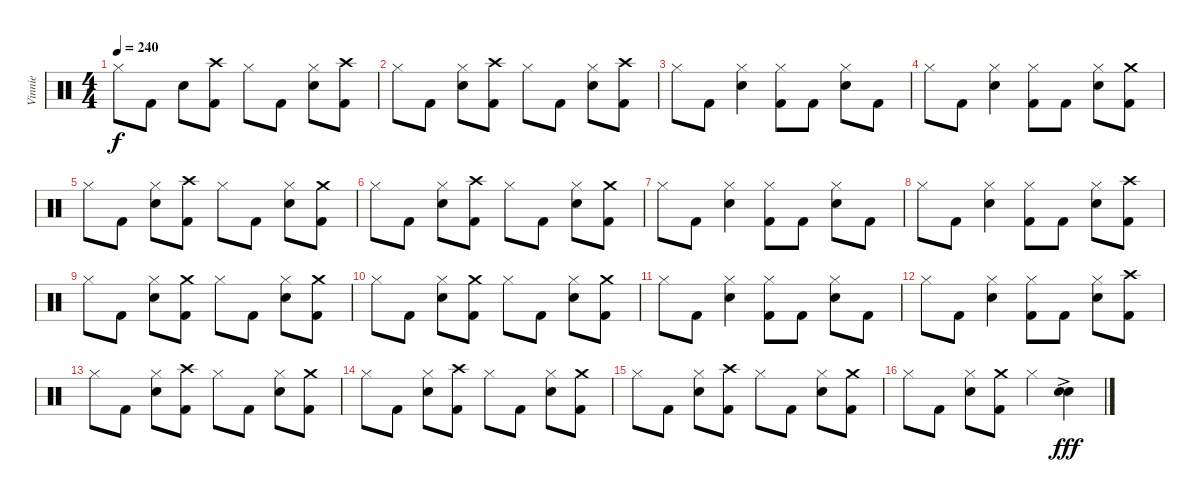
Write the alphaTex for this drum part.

\track ("Vinnie" "Vinnie") {instrument percussion}
\staff {score}
\articulation defaults
\ts (4 4)
\tempo 240
\clef neutral
\ks c "Hi-Hat (closed)".8{dy f} "Kick (hit) 2".8 "Electric Snare (hit)".8
("Crash high (hit)" "Kick (hit) 2").8 "Hi-Hat (closed)".8 "Kick (hit) 2".8 ("Hi-Hat (closed)" "Electric Snare (hit)").8 ("Crash high (hit)" "Kick (hit) 2").8 |
"Hi-Hat (closed)".8 "Kick (hit) 2".8 ("Hi-Hat (closed)" "Electric Snare (hit)").8 ("Crash high (hit)" "Kick (hit) 2").8 "Hi-Hat (closed)".8 "Kick (hit) 2".8 ("Hi-Hat (closed)" "Electric Snare (hit)").8 ("Crash high (hit)" "Kick (hit) 2").8 |
"Hi-Hat (closed)".8 "Kick (hit) 2".8 ("Hi-Hat (closed)" "Electric Snare (hit)").4 ("Hi-Hat (closed)" "Kick (hit) 2").8 "Kick (hit) 2".8 ("Hi-Hat (closed)" "Electric Snare (hit)").8 "Kick (hit) 2".8 |
"Hi-Hat (closed)".8 "Kick (hit) 2".8 ("Hi-Hat (closed)" "Electric Snare (hit)").4 ("Hi-Hat (closed)" "Kick (hit) 2").8 "Kick (hit) 2".8 ("Hi-Hat (closed)" "Electric Snare (hit)").8 ("Crash medium (hit)" "Kick (hit) 2").8 |
"Hi-Hat (closed)".8 "Kick (hit) 2".8 ("Hi-Hat (closed)" "Electric Snare (hit)").8 ("Crash high (hit)" "Kick (hit) 2").8 "Hi-Hat (closed)".8 "Kick (hit) 2".8 ("Hi-Hat (closed)" "Electric Snare (hit)").8 ("Crash medium (hit)" "Kick (hit) 2").8 |
"Hi-Hat (closed)".8 "Kick (hit) 2".8 ("Hi-Hat (closed)" "Electric Snare (hit)").8 ("Crash high (hit)" "Kick (hit) 2").8 "Hi-Hat (closed)".8 "Kick (hit) 2".8 ("Hi-Hat (closed)" "Electric Snare (hit)").8 ("Crash medium (hit)" "Kick (hit) 2").8 |
"Hi-Hat (closed)".8 "Kick (hit) 2".8 ("Hi-Hat (closed)" "Electric Snare (hit)").4 ("Hi-Hat (closed)" "Kick (hit) 2").8 "Kick (hit) 2".8 ("Hi-Hat (closed)" "Electric Snare (hit)").8 "Kick (hit) 2".8 |
"Hi-Hat (closed)".8 "Kick (hit) 2".8 ("Hi-Hat (closed)" "Electric Snare (hit)").4 ("Hi-Hat (closed)" "Kick (hit) 2").8 "Kick (hit) 2".8 ("Hi-Hat (closed)" "Electric Snare (hit)").8 ("Crash high (hit)" "Kick (hit) 2").8 |
"Hi-Hat (closed)".8 "Kick (hit) 2".8 ("Hi-Hat (closed)" "Electric Snare (hit)").8 ("Crash medium (hit)" "Kick (hit) 2").8 "Hi-Hat (closed)".8 "Kick (hit) 2".8 ("Hi-Hat (closed)" "Electric Snare (hit)").8 ("Crash medium (hit)" "Kick (hit) 2").8 |
"Hi-Hat (closed)".8 "Kick (hit) 2".8 ("Hi-Hat (closed)" "Electric Snare (hit)").8 ("Crash medium (hit)" "Kick (hit) 2").8 "Hi-Hat (closed)".8 "Kick (hit) 2".8 ("Hi-Hat (closed)" "Electric Snare (hit)").8 ("Crash medium (hit)" "Kick (hit) 2").8 |
"Hi-Hat (closed)".8 "Kick (hit) 2".8 ("Hi-Hat (closed)" "Electric Snare (hit)").4 ("Hi-Hat (closed)" "Kick (hit) 2").8 "Kick (hit) 2".8 ("Hi-Hat (closed)" "Electric Snare (hit)").8 "Kick (hit) 2".8 |
"Hi-Hat (closed)".8 "Kick (hit) 2".8 ("Hi-Hat (closed)" "Electric Snare (hit)").4 ("Hi-Hat (closed)" "Kick (hit) 2").8 "Kick (hit) 2".8 ("Hi-Hat (closed)" "Electric Snare (hit)").8 ("Crash high (hit)" "Kick (hit) 2").8 |
"Hi-Hat (closed)".8 "Kick (hit) 2".8 ("Hi-Hat (closed)" "Electric Snare (hit)").8 ("Crash high (hit)" "Kick (hit) 2").8 "Hi-Hat (closed)".8 "Kick (hit) 2".8 ("Hi-Hat (closed)" "Electric Snare (hit)").8 ("Crash medium (hit)" "Kick (hit) 2").8 |
"Hi-Hat (closed)".8 "Kick (hit) 2".8 ("Hi-Hat (closed)" "Electric Snare (hit)").8 ("Crash high (hit)" "Kick (hit) 2").8 "Hi-Hat (closed)".8 "Kick (hit) 2".8 ("Hi-Hat (closed)" "Electric Snare (hit)").8 ("Crash medium (hit)" "Kick (hit) 2").8 |
"Hi-Hat (closed)".8 "Kick (hit) 2".8 ("Hi-Hat (closed)" "Electric Snare (hit)").8 ("Crash high (hit)" "Kick (hit) 2").8 "Hi-Hat (closed)".8 "Kick (hit) 2".8 ("Hi-Hat (closed)" "Electric Snare (hit)").8 ("Crash medium (hit)" "Kick (hit) 2").8 |
"Hi-Hat (closed)".8 "Kick (hit) 2".8 ("Hi-Hat (closed)" "Electric Snare (hit)").8 ("Crash medium (hit)" "Kick (hit) 2").8 "Hi-Hat (closed)".4 ("Electric Snare (hit)"{ac} "Electric Snare (hit)"{ac}).4{dy fff}
